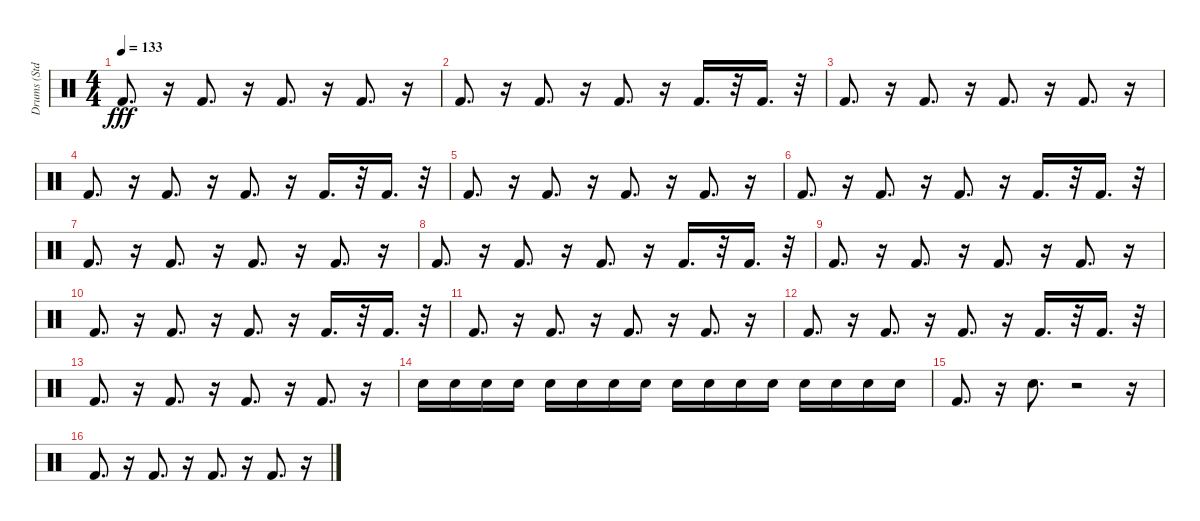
\track ("Drums (Std.)" "Drums (Std") {instrument percussion}
\staff {score}
\articulation defaults
\ts (4 4)
\tempo 133
\clef neutral
\ks c "Kick (hit) 2".8{d dy fff}
r.16 "Kick (hit) 2".8{d} r.16 "Kick (hit) 2".8{d} r.16 "Kick (hit) 2".8{d} r.16 |
"Kick (hit) 2".8{d} r.16 "Kick (hit) 2".8{d} r.16 "Kick (hit) 2".8{d} r.16 "Kick (hit) 2".16{d} r.32 "Kick (hit) 2".16{d} r.32 |
"Kick (hit) 2".8{d} r.16 "Kick (hit) 2".8{d} r.16 "Kick (hit) 2".8{d} r.16 "Kick (hit) 2".8{d} r.16 |
"Kick (hit) 2".8{d} r.16 "Kick (hit) 2".8{d} r.16 "Kick (hit) 2".8{d} r.16 "Kick (hit) 2".16{d} r.32 "Kick (hit) 2".16{d} r.32 |
"Kick (hit) 2".8{d} r.16 "Kick (hit) 2".8{d} r.16 "Kick (hit) 2".8{d} r.16 "Kick (hit) 2".8{d} r.16 |
"Kick (hit) 2".8{d} r.16 "Kick (hit) 2".8{d} r.16 "Kick (hit) 2".8{d} r.16 "Kick (hit) 2".16{d} r.32 "Kick (hit) 2".16{d} r.32 |
"Kick (hit) 2".8{d} r.16 "Kick (hit) 2".8{d} r.16 "Kick (hit) 2".8{d} r.16 "Kick (hit) 2".8{d} r.16 |
"Kick (hit) 2".8{d} r.16 "Kick (hit) 2".8{d} r.16 "Kick (hit) 2".8{d} r.16 "Kick (hit) 2".16{d} r.32 "Kick (hit) 2".16{d} r.32 |
"Kick (hit) 2".8{d} r.16 "Kick (hit) 2".8{d} r.16 "Kick (hit) 2".8{d} r.16 "Kick (hit) 2".8{d} r.16 |
"Kick (hit) 2".8{d} r.16 "Kick (hit) 2".8{d} r.16 "Kick (hit) 2".8{d} r.16 "Kick (hit) 2".16{d} r.32 "Kick (hit) 2".16{d} r.32 |
"Kick (hit) 2".8{d} r.16 "Kick (hit) 2".8{d} r.16 "Kick (hit) 2".8{d} r.16 "Kick (hit) 2".8{d} r.16 |
"Kick (hit) 2".8{d} r.16 "Kick (hit) 2".8{d} r.16 "Kick (hit) 2".8{d} r.16 "Kick (hit) 2".16{d} r.32 "Kick (hit) 2".16{d} r.32 |
"Kick (hit) 2".8{d} r.16 "Kick (hit) 2".8{d} r.16 "Kick (hit) 2".8{d} r.16 "Kick (hit) 2".8{d} r.16 |
"Snare (hit) 2".16 "Snare (hit) 2".16 "Snare (hit) 2".16 "Snare (hit) 2".16 "Snare (hit) 2".16 "Snare (hit) 2".16 "Snare (hit) 2".16 "Snare (hit) 2".16 "Snare (hit) 2".16 "Snare (hit) 2".16 "Snare (hit) 2".16 "Snare (hit) 2".16 "Snare (hit) 2".16 "Snare (hit) 2".16 "Snare (hit) 2".16 "Snare (hit) 2".16 |
"Kick (hit) 2".8{d} r.16 "Hand Clap (hit)".8{d} r.2 r.16 |
"Kick (hit) 2".8{d} r.16 "Kick (hit) 2".8{d} r.16 "Kick (hit) 2".8{d} r.16 "Kick (hit) 2".8{d} r.16
